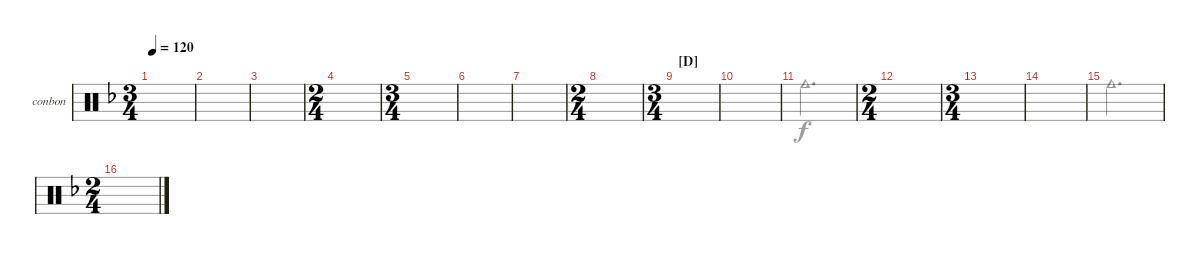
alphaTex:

\defaultSystemsLayout 4
\bracketExtendMode groupsimilarinstruments
\firstSystemTrackNameOrientation horizontal
\otherSystemsTrackNameOrientation horizontal
\track ("Bongos N Congas" "conbon") {instrument percussion}
\staff {score}
\articulation defaults
\voice
\ts (3 4)
\tempo 120
\clef neutral
\scale
0.5
\ks f
|
\scale
0.25 |
\scale
0.25 |
\ts (2 4)
\scale
0.4 |
\ts (3 4)
\scale
0.4 |
\scale
0.2 |
\scale
0.2 |
\ts (2 4)
\scale
0.4 |
\ts (3 4)
\section ("D" "")
\scale
0.4 |
\scale
0.25 |
\scale
0.25 |
\ts (2 4)
\scale
0.5 |
\ts (3 4)
\scale
0.5 |
\scale
0.25 |
\scale
0.25 |
\ts (2 4)
\scale
0.4
\voice
\clef neutral
\ottava regular
\simile none
\scale
0.5
\ks f
|
\scale
0.25 |
\scale
0.25 |
\scale
0.4 |
\scale
0.4 |
\scale
0.2 |
\scale
0.2 |
\scale
0.4 |
\scale
0.4 |
\scale
0.25 |
\scale
0.25 "Cowbell medium (hit)".2{d} |
\scale
0.5 |
\scale
0.5 |
\scale
0.25 |
\scale
0.25 "Cowbell medium (hit)".2{d} |
\scale
0.4
